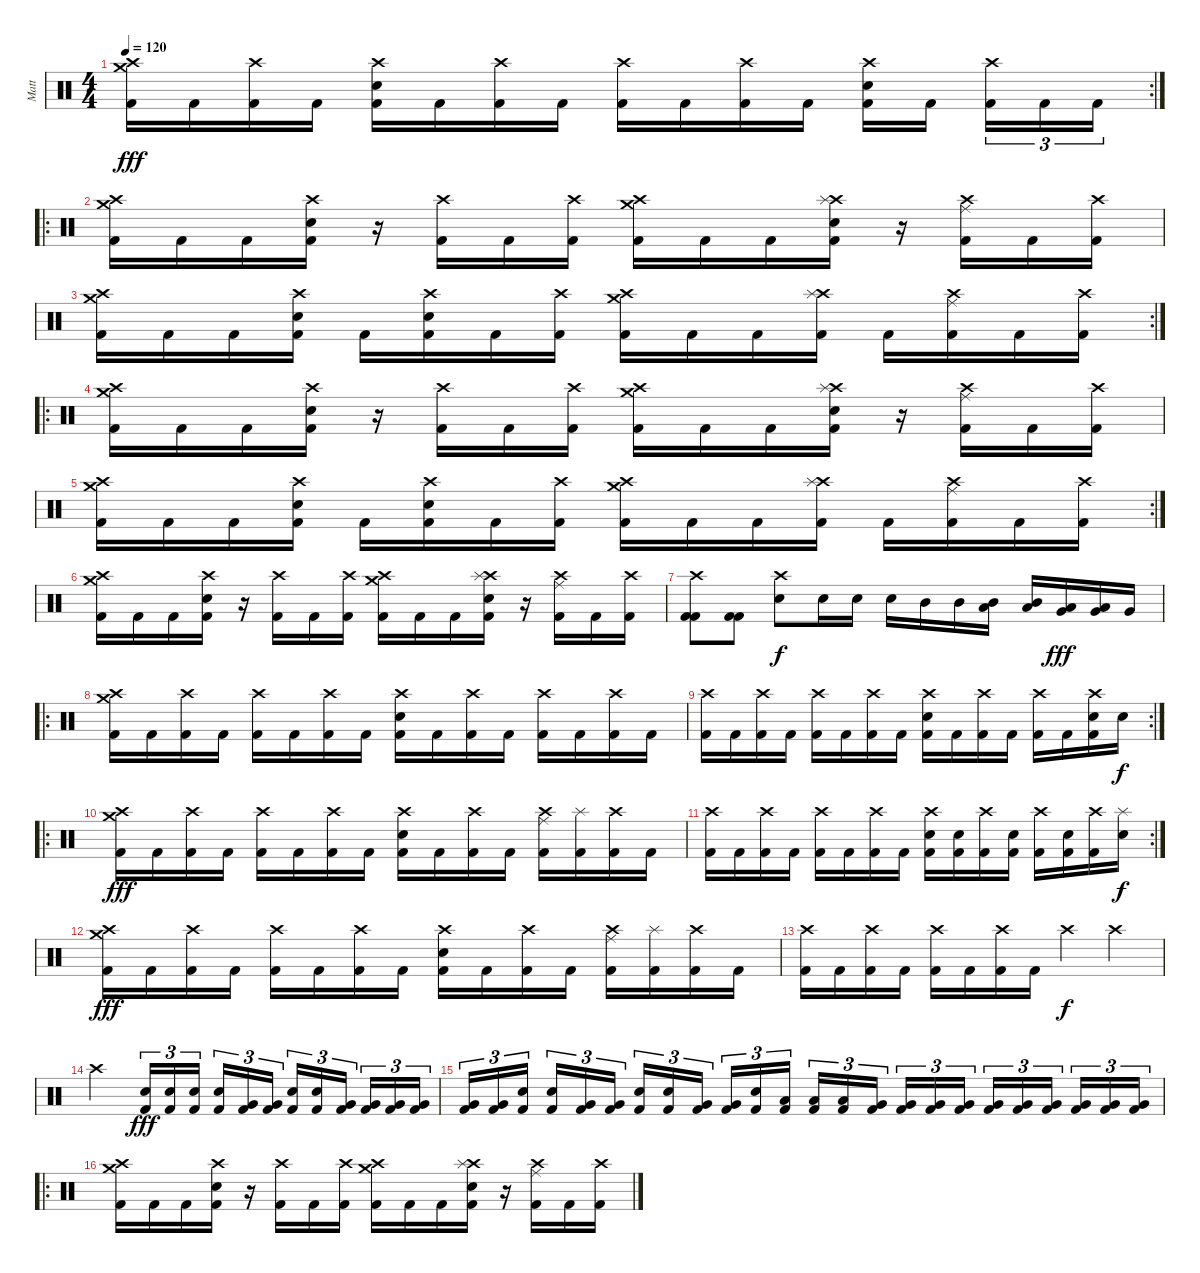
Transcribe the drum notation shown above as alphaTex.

\track ("Matt" "Matt") {instrument percussion}
\staff {score}
\articulation defaults
\rc 2
\ts (4 4)
\tempo 120
\clef neutral
\ks c
("Crash high (hit)" "Crash medium (hit)" "Kick (hit) 2").16{dy fff} "Kick (hit) 2".16 ("Crash high (hit)" "Kick (hit) 2").16 "Kick (hit) 2".16 ("Crash high (hit)" "Electric Snare (hit)" "Kick (hit) 2").16 "Kick (hit) 2".16 ("Crash high (hit)" "Kick (hit) 2").16 "Kick (hit) 2".16 ("Crash high (hit)" "Kick (hit) 2").16 "Kick (hit) 2".16 ("Crash high (hit)" "Kick (hit) 2").16 "Kick (hit) 2".16 ("Crash high (hit)" "Electric Snare (hit)" "Kick (hit) 2").16 "Kick (hit) 2".16 ("Crash high (hit)" "Kick (hit) 2").16{tu (3 2)} "Kick (hit) 2".16{tu (3 2)} "Kick (hit) 2".16{tu (3 2)} |
\ro
("Crash high (hit)" "Crash medium (hit)" "Kick (hit) 2").16 "Kick (hit) 2".16 "Kick (hit) 2".16 ("Crash high (hit)" "Electric Snare (hit)" "Kick (hit) 2").16 r.16 ("Crash high (hit)" "Kick (hit) 2").16 "Kick (hit) 2".16 ("Crash high (hit)" "Kick (hit) 2").16 ("Crash high (hit)" "Crash medium (hit)" "Kick (hit) 2").16 "Kick (hit) 2".16 "Kick (hit) 2".16 ("Crash high (hit)" "Splash (hit)" "Electric Snare (hit)" "Kick (hit) 2").16 r.16 ("Crash high (hit)" "Ride (middle)" "Kick (hit) 2").16 "Kick (hit) 2".16 ("Crash high (hit)" "Kick (hit) 2").16 |
\rc 2
("Crash high (hit)" "Crash medium (hit)" "Kick (hit) 2").16 "Kick (hit) 2".16 "Kick (hit) 2".16 ("Crash high (hit)" "Electric Snare (hit)" "Kick (hit) 2").16 "Kick (hit) 2".16 ("Crash high (hit)" "Electric Snare (hit)" "Kick (hit) 2").16 "Kick (hit) 2".16 ("Crash high (hit)" "Kick (hit) 2").16 ("Crash high (hit)" "Crash medium (hit)" "Kick (hit) 2").16 "Kick (hit) 2".16 "Kick (hit) 2".16 ("Crash high (hit)" "Splash (hit)" "Kick (hit) 2").16 "Kick (hit) 2".16 ("Crash high (hit)" "Ride (middle)" "Kick (hit) 2").16 "Kick (hit) 2".16 ("Crash high (hit)" "Kick (hit) 2").16 |
\ro
("Crash high (hit)" "Crash medium (hit)" "Kick (hit) 2").16 "Kick (hit) 2".16 "Kick (hit) 2".16 ("Crash high (hit)" "Electric Snare (hit)" "Kick (hit) 2").16 r.16 ("Crash high (hit)" "Kick (hit) 2").16 "Kick (hit) 2".16 ("Crash high (hit)" "Kick (hit) 2").16 ("Crash high (hit)" "Crash medium (hit)" "Kick (hit) 2").16 "Kick (hit) 2".16 "Kick (hit) 2".16 ("Crash high (hit)" "Splash (hit)" "Electric Snare (hit)" "Kick (hit) 2").16 r.16 ("Crash high (hit)" "Ride (middle)" "Kick (hit) 2").16 "Kick (hit) 2".16 ("Crash high (hit)" "Kick (hit) 2").16 |
\rc 2
("Crash high (hit)" "Crash medium (hit)" "Kick (hit) 2").16 "Kick (hit) 2".16 "Kick (hit) 2".16 ("Crash high (hit)" "Electric Snare (hit)" "Kick (hit) 2").16 "Kick (hit) 2".16 ("Crash high (hit)" "Electric Snare (hit)" "Kick (hit) 2").16 "Kick (hit) 2".16 ("Crash high (hit)" "Kick (hit) 2").16 ("Crash high (hit)" "Crash medium (hit)" "Kick (hit) 2").16 "Kick (hit) 2".16 "Kick (hit) 2".16 ("Crash high (hit)" "Splash (hit)" "Kick (hit) 2").16 "Kick (hit) 2".16 ("Crash high (hit)" "Ride (middle)" "Kick (hit) 2").16 "Kick (hit) 2".16 ("Crash high (hit)" "Kick (hit) 2").16 |
("Crash high (hit)" "Crash medium (hit)" "Kick (hit) 2").16 "Kick (hit) 2".16 "Kick (hit) 2".16 ("Crash high (hit)" "Electric Snare (hit)" "Kick (hit) 2").16 r.16 ("Crash high (hit)" "Kick (hit) 2").16 "Kick (hit) 2".16 ("Crash high (hit)" "Kick (hit) 2").16 ("Crash high (hit)" "Crash medium (hit)" "Kick (hit) 2").16 "Kick (hit) 2".16 "Kick (hit) 2".16 ("Crash high (hit)" "Splash (hit)" "Electric Snare (hit)" "Kick (hit) 2").16 r.16 ("Crash high (hit)" "Ride (middle)" "Kick (hit) 2").16 "Kick (hit) 2".16 ("Crash high (hit)" "Kick (hit) 2").16 |
("Crash high (hit)" "Kick (hit) 2" "Kick (hit) 2").8 ("Kick (hit) 2" "Kick (hit) 2").8 ("Crash high (hit)" "Electric Snare (hit)").8{dy f} "Electric Snare (hit)".16 "Electric Snare (hit)".16 "Electric Snare (hit)".16 "Mid Tom (hit)".16 "Mid Tom (hit)".16 ("Low Tom (hit)" "Mid Tom (hit)").16 ("Low Tom (hit)" "Mid Tom (hit)").16 ("Low Tom (hit)" "Very Low Tom (hit)").16{dy fff} ("Low Tom (hit)" "Very Low Tom (hit)").16 "Very Low Tom (hit)".16 |
\ro
("Crash high (hit)" "Crash medium (hit)" "Kick (hit) 2").16 "Kick (hit) 2".16 ("Crash high (hit)" "Kick (hit) 2").16 "Kick (hit) 2".16 ("Crash high (hit)" "Kick (hit) 2").16 "Kick (hit) 2".16 ("Crash high (hit)" "Kick (hit) 2").16 "Kick (hit) 2".16 ("Crash high (hit)" "Electric Snare (hit)" "Kick (hit) 2").16 "Kick (hit) 2".16 ("Crash high (hit)" "Kick (hit) 2").16 "Kick (hit) 2".16 ("Crash high (hit)" "Kick (hit) 2").16 "Kick (hit) 2".16 ("Crash high (hit)" "Kick (hit) 2").16 "Kick (hit) 2".16 |
\rc 2
("Crash high (hit)" "Kick (hit) 2").16 "Kick (hit) 2".16 ("Crash high (hit)" "Kick (hit) 2").16 "Kick (hit) 2".16 ("Crash high (hit)" "Kick (hit) 2").16 "Kick (hit) 2".16 ("Crash high (hit)" "Kick (hit) 2").16 "Kick (hit) 2".16 ("Crash high (hit)" "Electric Snare (hit)" "Kick (hit) 2").16 "Kick (hit) 2".16 ("Crash high (hit)" "Kick (hit) 2").16 "Kick (hit) 2".16 ("Crash high (hit)" "Kick (hit) 2").16 "Kick (hit) 2".16 ("Crash high (hit)" "Electric Snare (hit)" "Kick (hit) 2").16 "Electric Snare (hit)".16{dy f} |
\ro
("Crash high (hit)" "Crash medium (hit)" "Kick (hit) 2").16{dy fff} "Kick (hit) 2".16 ("Crash high (hit)" "Kick (hit) 2").16 "Kick (hit) 2".16 ("Crash high (hit)" "Kick (hit) 2").16 "Kick (hit) 2".16 ("Crash high (hit)" "Kick (hit) 2").16 "Kick (hit) 2".16 ("Crash high (hit)" "Electric Snare (hit)" "Kick (hit) 2").16 "Kick (hit) 2".16 ("Crash high (hit)" "Kick (hit) 2").16 "Kick (hit) 2".16 ("Crash high (hit)" "Ride (middle)" "Kick (hit) 2").16 ("Splash (hit)" "Kick (hit) 2").16 ("Crash high (hit)" "Kick (hit) 2").16 "Kick (hit) 2".16 |
\rc 2
("Crash high (hit)" "Kick (hit) 2").16 "Kick (hit) 2".16 ("Crash high (hit)" "Kick (hit) 2").16 "Kick (hit) 2".16 ("Crash high (hit)" "Kick (hit) 2").16 "Kick (hit) 2".16 ("Crash high (hit)" "Kick (hit) 2").16 "Kick (hit) 2".16 ("Crash high (hit)" "Electric Snare (hit)" "Kick (hit) 2").16 ("Electric Snare (hit)" "Kick (hit) 2").16 ("Crash high (hit)" "Kick (hit) 2").16 ("Electric Snare (hit)" "Kick (hit) 2").16 ("Crash high (hit)" "Kick (hit) 2").16 ("Electric Snare (hit)" "Kick (hit) 2").16 ("Crash high (hit)" "Kick (hit) 2").16 ("Splash (hit)" "Electric Snare (hit)").16{dy f} |
("Crash high (hit)" "Crash medium (hit)" "Kick (hit) 2").16{dy fff} "Kick (hit) 2".16 ("Crash high (hit)" "Kick (hit) 2").16 "Kick (hit) 2".16 ("Crash high (hit)" "Kick (hit) 2").16 "Kick (hit) 2".16 ("Crash high (hit)" "Kick (hit) 2").16 "Kick (hit) 2".16 ("Crash high (hit)" "Electric Snare (hit)" "Kick (hit) 2").16 "Kick (hit) 2".16 ("Crash high (hit)" "Kick (hit) 2").16 "Kick (hit) 2".16 ("Crash high (hit)" "Ride (middle)" "Kick (hit) 2").16 ("Splash (hit)" "Kick (hit) 2").16 ("Crash high (hit)" "Kick (hit) 2").16 "Kick (hit) 2".16 |
("Crash high (hit)" "Kick (hit) 2").16 "Kick (hit) 2".16 ("Crash high (hit)" "Kick (hit) 2").16 "Kick (hit) 2".16 ("Crash high (hit)" "Kick (hit) 2").16 "Kick (hit) 2".16 ("Crash high (hit)" "Kick (hit) 2").16 "Kick (hit) 2".16 "Crash high (hit)".4{dy f} "Crash high (hit)".4 |
"Crash high (hit)".2 ("Electric Snare (hit)" "Kick (hit) 2").16{tu (3 2) dy fff} ("Electric Snare (hit)" "Kick (hit) 2").16{tu (3 2)} ("Electric Snare (hit)" "Kick (hit) 2").16{tu (3 2)} ("Electric Snare (hit)" "Kick (hit) 2").16{tu (3 2)} ("Very Low Tom (hit)" "Kick (hit) 2").16{tu (3 2)} ("Very Low Tom (hit)" "Kick (hit) 2").16{tu (3 2)} ("Electric Snare (hit)" "Kick (hit) 2").16{tu (3 2)} ("Electric Snare (hit)" "Kick (hit) 2").16{tu (3 2)} ("Very Low Tom (hit)" "Kick (hit) 2").16{tu (3 2)} ("Very Low Tom (hit)" "Kick (hit) 2").16{tu (3 2)} ("Very Low Tom (hit)" "Kick (hit) 2").16{tu (3 2)} ("Very Low Tom (hit)" "Kick (hit) 2").16{tu (3 2)} |
("Very Low Tom (hit)" "Kick (hit) 2").16{tu (3 2)} ("Very Low Tom (hit)" "Kick (hit) 2").16{tu (3 2)} ("Electric Snare (hit)" "Kick (hit) 2").16{tu (3 2)} ("Electric Snare (hit)" "Kick (hit) 2").16{tu (3 2)} ("Very Low Tom (hit)" "Kick (hit) 2").16{tu (3 2)} ("Very Low Tom (hit)" "Kick (hit) 2").16{tu (3 2)} ("Electric Snare (hit)" "Kick (hit) 2").16{tu (3 2)} ("Electric Snare (hit)" "Kick (hit) 2").16{tu (3 2)} ("Very Low Tom (hit)" "Kick (hit) 2").16{tu (3 2)} ("Very Low Tom (hit)" "Kick (hit) 2").16{tu (3 2)} ("Electric Snare (hit)" "Kick (hit) 2").16{tu (3 2)} ("Low Floor Tom (hit)" "Kick (hit) 2").16{tu (3 2)} ("Low Floor Tom (hit)" "Kick (hit) 2").16{tu (3 2)} ("Low Floor Tom (hit)" "Kick (hit) 2").16{tu (3 2)} ("Very Low Tom (hit)" "Kick (hit) 2").16{tu (3 2)} ("Very Low Tom (hit)" "Kick (hit) 2").16{tu (3 2)} ("Very Low Tom (hit)" "Kick (hit) 2").16{tu (3 2)} ("Very Low Tom (hit)" "Kick (hit) 2").16{tu (3 2)} ("Very Low Tom (hit)" "Kick (hit) 2").16{tu (3 2)} ("Very Low Tom (hit)" "Kick (hit) 2").16{tu (3 2)} ("Very Low Tom (hit)" "Kick (hit) 2").16{tu (3 2)} ("Very Low Tom (hit)" "Kick (hit) 2").16{tu (3 2)} ("Very Low Tom (hit)" "Kick (hit) 2").16{tu (3 2)} ("Very Low Tom (hit)" "Kick (hit) 2").16{tu (3 2)} |
\ro
("Crash high (hit)" "Crash medium (hit)" "Kick (hit) 2").16 "Kick (hit) 2".16 "Kick (hit) 2".16 ("Crash high (hit)" "Electric Snare (hit)" "Kick (hit) 2").16 r.16 ("Crash high (hit)" "Kick (hit) 2").16 "Kick (hit) 2".16 ("Crash high (hit)" "Kick (hit) 2").16 ("Crash high (hit)" "Crash medium (hit)" "Kick (hit) 2").16 "Kick (hit) 2".16 "Kick (hit) 2".16 ("Crash high (hit)" "Splash (hit)" "Electric Snare (hit)" "Kick (hit) 2").16 r.16 ("Crash high (hit)" "Ride (middle)" "Kick (hit) 2").16 "Kick (hit) 2".16 ("Crash high (hit)" "Kick (hit) 2").16
